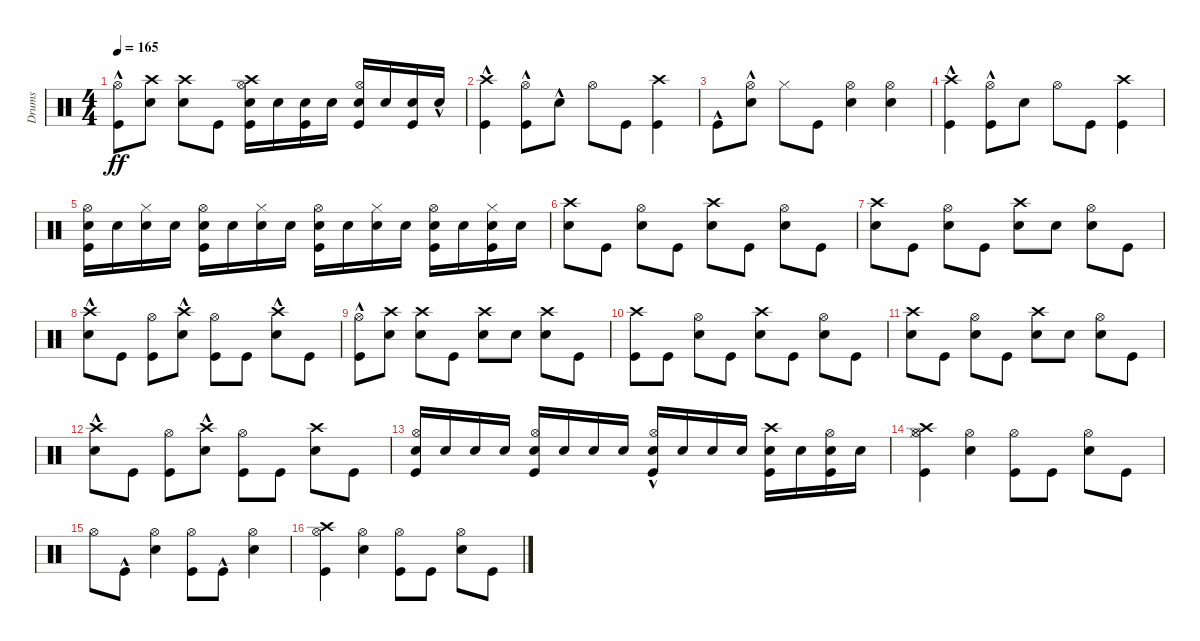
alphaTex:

\track ("Drums" "Drums") {instrument percussion}
\staff {score}
\articulation defaults
\ts (4 4)
\tempo 165
\clef neutral
\ks c
("Kick (hit)"{hac} "Hi-Hat (open)").8{dy ff} ("Snare (hit) 2" "Crash high (hit)").8 ("Snare (hit) 2" "Crash high (hit)").8 "Kick (hit)".8 ("Kick (hit)" "Snare (hit) 2" "Hi-Hat (open)" "Crash high (hit)").16 "Snare (hit) 2".16 ("Kick (hit)" "Snare (hit) 2").16 "Snare (hit) 2".16 ("Kick (hit)" "Snare (hit) 2" "Hi-Hat (open)").16 "Snare (hit) 2".16 ("Kick (hit)" "Snare (hit) 2").16 "Snare (hit) 2"{hac}.16 |
("Kick (hit)" "Crash high (hit)"{hac}).4 ("Kick (hit)"{hac} "Hi-Hat (open)").8 "Snare (hit) 2"{hac}.8 "Hi-Hat (open)".8 "Kick (hit)".8 ("Kick (hit)" "Crash high (hit)").4 |
"Kick (hit)"{hac}.8 ("Snare (hit) 2"{hac} "Hi-Hat (open)"{hac}).8 "Hi-Hat (closed)".8 "Kick (hit)".8 ("Snare (hit) 2" "Hi-Hat (open)").4 ("Snare (hit) 2" "Hi-Hat (open)").4 |
("Kick (hit)" "Crash high (hit)"{hac}).4 ("Kick (hit)"{hac} "Hi-Hat (open)").8 "Snare (hit) 2".8 "Hi-Hat (open)".8 "Kick (hit)".8 ("Kick (hit)" "Crash high (hit)").4 |
("Kick (hit)" "Snare (hit) 2" "Hi-Hat (open)").16 "Snare (hit) 2".16 ("Snare (hit) 2" "Hi-Hat (closed)").16 "Snare (hit) 2".16 ("Kick (hit)" "Snare (hit) 2" "Hi-Hat (open)").16 "Snare (hit) 2".16 ("Snare (hit) 2" "Hi-Hat (closed)").16 "Snare (hit) 2".16 ("Kick (hit)" "Snare (hit) 2" "Hi-Hat (open)").16 "Snare (hit) 2".16 ("Snare (hit) 2" "Hi-Hat (closed)").16 "Snare (hit) 2".16 ("Kick (hit)" "Snare (hit) 2" "Hi-Hat (open)").16 "Snare (hit) 2".16 ("Kick (hit)" "Snare (hit) 2" "Hi-Hat (closed)").16 "Snare (hit) 2".16 |
("Snare (hit) 2" "Crash high (hit)").8 "Kick (hit)".8 ("Snare (hit) 2" "Hi-Hat (open)").8 "Kick (hit)".8 ("Snare (hit) 2" "Crash high (hit)").8 "Kick (hit)".8 ("Snare (hit) 2" "Hi-Hat (open)").8 "Kick (hit)".8 |
("Snare (hit) 2" "Crash high (hit)").8 "Kick (hit)".8 ("Snare (hit) 2" "Hi-Hat (open)").8 "Kick (hit)".8 ("Snare (hit) 2" "Crash high (hit)").8 "Snare (hit) 2".8 ("Snare (hit) 2" "Hi-Hat (open)").8 "Kick (hit)".8 |
("Snare (hit) 2"{hac} "Crash high (hit)"{hac}).8 "Kick (hit)".8 ("Kick (hit)" "Hi-Hat (open)").8 ("Snare (hit) 2"{hac} "Crash high (hit)"{hac}).8 ("Kick (hit)" "Hi-Hat (open)").8 "Kick (hit)".8 ("Snare (hit) 2"{hac} "Crash high (hit)"{hac}).8 "Kick (hit)".8 |
("Kick (hit)"{hac} "Hi-Hat (open)").8 ("Snare (hit) 2" "Crash high (hit)").8 ("Snare (hit) 2" "Crash high (hit)").8 "Kick (hit)".8 ("Snare (hit) 2" "Crash high (hit)").8 "Snare (hit) 2".8 ("Snare (hit) 2" "Crash high (hit)").8 "Kick (hit)".8 |
("Kick (hit)" "Crash high (hit)").8 "Kick (hit)".8 ("Snare (hit) 2" "Hi-Hat (open)").8 "Kick (hit)".8 ("Snare (hit) 2" "Crash high (hit)").8 "Kick (hit)".8 ("Snare (hit) 2" "Hi-Hat (open)").8 "Kick (hit)".8 |
("Snare (hit) 2" "Crash high (hit)").8 "Kick (hit)".8 ("Snare (hit) 2" "Hi-Hat (open)").8 "Kick (hit)".8 ("Snare (hit) 2" "Crash high (hit)").8 "Snare (hit) 2".8 ("Snare (hit) 2" "Hi-Hat (open)").8 "Kick (hit)".8 |
("Snare (hit) 2"{hac} "Crash high (hit)"{hac}).8 "Kick (hit)".8 ("Kick (hit)" "Hi-Hat (open)").8 ("Snare (hit) 2"{hac} "Crash high (hit)"{hac}).8 ("Kick (hit)" "Hi-Hat (open)").8 "Kick (hit)".8 ("Snare (hit) 2" "Crash high (hit)").8 "Kick (hit)".8 |
("Kick (hit)" "Snare (hit) 2" "Hi-Hat (open)").16 "Snare (hit) 2".16 "Snare (hit) 2".16 "Snare (hit) 2".16 ("Kick (hit)" "Snare (hit) 2" "Hi-Hat (open)").16 "Snare (hit) 2".16 "Snare (hit) 2".16 "Snare (hit) 2".16 ("Kick (hit)" "Snare (hit) 2" "Hi-Hat (open)"{hac}).16 "Snare (hit) 2".16 "Snare (hit) 2".16 "Snare (hit) 2".16 ("Kick (hit)" "Snare (hit) 2" "Crash high (hit)").16 "Snare (hit) 2".16 ("Kick (hit)" "Snare (hit) 2" "Hi-Hat (open)").16 "Snare (hit) 2".16 |
("Kick (hit)" "Hi-Hat (closed)" "Hi-Hat (open)" "Crash high (hit)").4 ("Snare (hit) 2" "Hi-Hat (open)").4 ("Kick (hit)" "Hi-Hat (open)").8 "Kick (hit)".8 ("Snare (hit) 2" "Hi-Hat (open)").8 "Kick (hit)".8 |
"Hi-Hat (open)".8 "Kick (hit)"{hac}.8 ("Snare (hit) 2" "Hi-Hat (open)").4 ("Kick (hit)" "Hi-Hat (open)").8 "Kick (hit)"{hac}.8 ("Snare (hit) 2" "Hi-Hat (open)").4 |
("Kick (hit)" "Hi-Hat (open)" "Crash high (hit)").4 ("Snare (hit) 2" "Hi-Hat (open)").4 ("Kick (hit)" "Hi-Hat (open)").8 "Kick (hit)".8 ("Snare (hit) 2" "Hi-Hat (open)").8 "Kick (hit)".8
